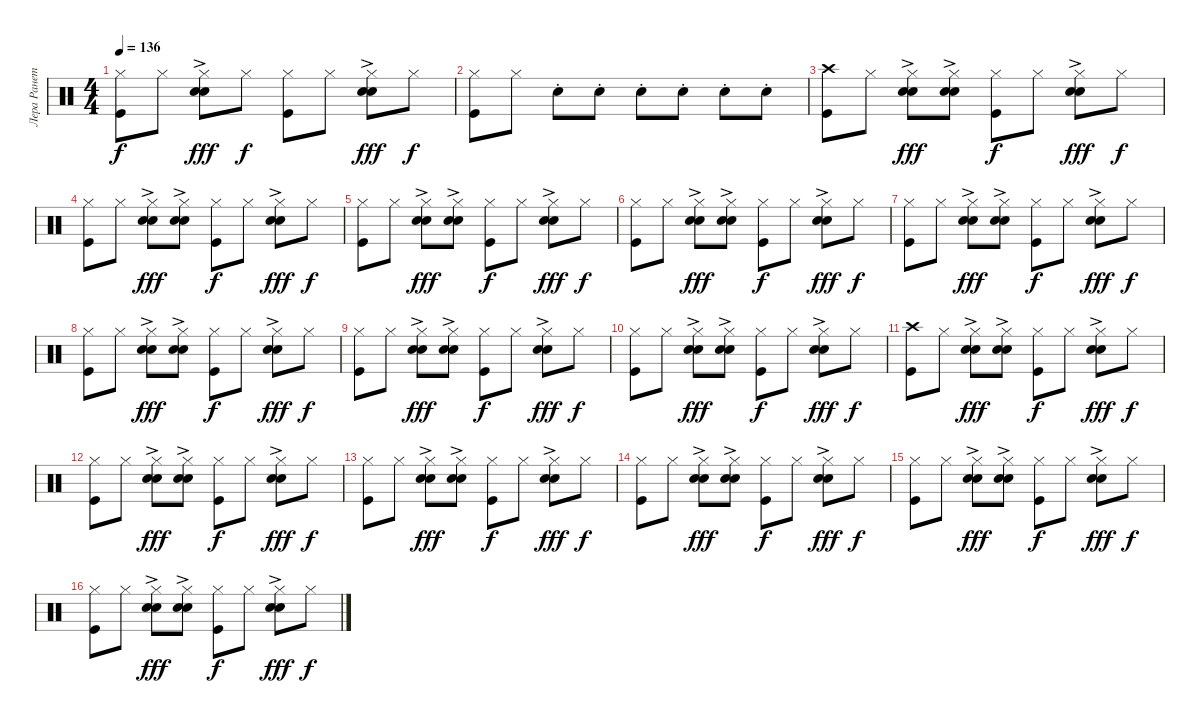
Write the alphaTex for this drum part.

\track ("Лера Ранетка" "Лера Ранет") {instrument percussion}
\staff {score}
\articulation defaults
\ts (4 4)
\tempo 136
\clef neutral
\ks c
("Hi-Hat (closed)" "Kick (hit)").8{dy f} "Hi-Hat (closed)".8 ("Hi-Hat (closed)" "Electric Snare (hit)" "Hand Clap (hit)"{ac}).8{dy fff} "Hi-Hat (closed)".8{dy f} ("Hi-Hat (closed)" "Kick (hit)").8 "Hi-Hat (closed)".8 ("Hi-Hat (closed)" "Electric Snare (hit)" "Hand Clap (hit)"{ac}).8{dy fff} "Hi-Hat (closed)".8{dy f} |
("Hi-Hat (closed)" "Kick (hit)").8 "Hi-Hat (closed)".8 "Electric Snare (hit)"{st}.8 "Electric Snare (hit)"{st}.8 "Electric Snare (hit)"{st}.8 "Electric Snare (hit)"{st}.8 "Electric Snare (hit)"{st}.8 "Electric Snare (hit)"{st}.8 |
("Crash high (hit)" "Kick (hit)").8 "Hi-Hat (closed)".8 ("Hi-Hat (closed)" "Electric Snare (hit)" "Hand Clap (hit)"{ac}).8{dy fff} ("Hi-Hat (closed)" "Electric Snare (hit)" "Hand Clap (hit)"{ac}).8 ("Hi-Hat (closed)" "Kick (hit)").8{dy f} "Hi-Hat (closed)".8 ("Hi-Hat (closed)" "Electric Snare (hit)" "Hand Clap (hit)"{ac}).8{dy fff} "Hi-Hat (closed)".8{dy f} |
("Hi-Hat (closed)" "Kick (hit)").8 "Hi-Hat (closed)".8 ("Hi-Hat (closed)" "Electric Snare (hit)" "Hand Clap (hit)"{ac}).8{dy fff} ("Hi-Hat (closed)" "Electric Snare (hit)" "Hand Clap (hit)"{ac}).8 ("Hi-Hat (closed)" "Kick (hit)").8{dy f} "Hi-Hat (closed)".8 ("Hi-Hat (closed)" "Electric Snare (hit)" "Hand Clap (hit)"{ac}).8{dy fff} "Hi-Hat (closed)".8{dy f} |
("Hi-Hat (closed)" "Kick (hit)").8 "Hi-Hat (closed)".8 ("Hi-Hat (closed)" "Electric Snare (hit)" "Hand Clap (hit)"{ac}).8{dy fff} ("Hi-Hat (closed)" "Electric Snare (hit)" "Hand Clap (hit)"{ac}).8 ("Hi-Hat (closed)" "Kick (hit)").8{dy f} "Hi-Hat (closed)".8 ("Hi-Hat (closed)" "Electric Snare (hit)" "Hand Clap (hit)"{ac}).8{dy fff} "Hi-Hat (closed)".8{dy f} |
("Hi-Hat (closed)" "Kick (hit)").8 "Hi-Hat (closed)".8 ("Hi-Hat (closed)" "Electric Snare (hit)" "Hand Clap (hit)"{ac}).8{dy fff} ("Hi-Hat (closed)" "Electric Snare (hit)" "Hand Clap (hit)"{ac}).8 ("Hi-Hat (closed)" "Kick (hit)").8{dy f} "Hi-Hat (closed)".8 ("Hi-Hat (closed)" "Electric Snare (hit)" "Hand Clap (hit)"{ac}).8{dy fff} "Hi-Hat (closed)".8{dy f} |
("Hi-Hat (closed)" "Kick (hit)").8 "Hi-Hat (closed)".8 ("Hi-Hat (closed)" "Electric Snare (hit)" "Hand Clap (hit)"{ac}).8{dy fff} ("Hi-Hat (closed)" "Electric Snare (hit)" "Hand Clap (hit)"{ac}).8 ("Hi-Hat (closed)" "Kick (hit)").8{dy f} "Hi-Hat (closed)".8 ("Hi-Hat (closed)" "Electric Snare (hit)" "Hand Clap (hit)"{ac}).8{dy fff} "Hi-Hat (closed)".8{dy f} |
("Hi-Hat (closed)" "Kick (hit)").8 "Hi-Hat (closed)".8 ("Hi-Hat (closed)" "Electric Snare (hit)" "Hand Clap (hit)"{ac}).8{dy fff} ("Hi-Hat (closed)" "Electric Snare (hit)" "Hand Clap (hit)"{ac}).8 ("Hi-Hat (closed)" "Kick (hit)").8{dy f} "Hi-Hat (closed)".8 ("Hi-Hat (closed)" "Electric Snare (hit)" "Hand Clap (hit)"{ac}).8{dy fff} "Hi-Hat (closed)".8{dy f} |
("Hi-Hat (closed)" "Kick (hit)").8 "Hi-Hat (closed)".8 ("Hi-Hat (closed)" "Electric Snare (hit)" "Hand Clap (hit)"{ac}).8{dy fff} ("Hi-Hat (closed)" "Electric Snare (hit)" "Hand Clap (hit)"{ac}).8 ("Hi-Hat (closed)" "Kick (hit)").8{dy f} "Hi-Hat (closed)".8 ("Hi-Hat (closed)" "Electric Snare (hit)" "Hand Clap (hit)"{ac}).8{dy fff} "Hi-Hat (closed)".8{dy f} |
("Hi-Hat (closed)" "Kick (hit)").8 "Hi-Hat (closed)".8 ("Hi-Hat (closed)" "Electric Snare (hit)" "Hand Clap (hit)"{ac}).8{dy fff} ("Hi-Hat (closed)" "Electric Snare (hit)" "Hand Clap (hit)"{ac}).8 ("Hi-Hat (closed)" "Kick (hit)").8{dy f} "Hi-Hat (closed)".8 ("Hi-Hat (closed)" "Electric Snare (hit)" "Hand Clap (hit)"{ac}).8{dy fff} "Hi-Hat (closed)".8{dy f} |
("Crash high (hit)" "Kick (hit)").8 "Hi-Hat (closed)".8 ("Hi-Hat (closed)" "Electric Snare (hit)" "Hand Clap (hit)"{ac}).8{dy fff} ("Hi-Hat (closed)" "Electric Snare (hit)" "Hand Clap (hit)"{ac}).8 ("Hi-Hat (closed)" "Kick (hit)").8{dy f} "Hi-Hat (closed)".8 ("Hi-Hat (closed)" "Electric Snare (hit)" "Hand Clap (hit)"{ac}).8{dy fff} "Hi-Hat (closed)".8{dy f} |
("Hi-Hat (closed)" "Kick (hit)").8 "Hi-Hat (closed)".8 ("Hi-Hat (closed)" "Electric Snare (hit)" "Hand Clap (hit)"{ac}).8{dy fff} ("Hi-Hat (closed)" "Electric Snare (hit)" "Hand Clap (hit)"{ac}).8 ("Hi-Hat (closed)" "Kick (hit)").8{dy f} "Hi-Hat (closed)".8 ("Hi-Hat (closed)" "Electric Snare (hit)" "Hand Clap (hit)"{ac}).8{dy fff} "Hi-Hat (closed)".8{dy f} |
("Hi-Hat (closed)" "Kick (hit)").8 "Hi-Hat (closed)".8 ("Hi-Hat (closed)" "Electric Snare (hit)" "Hand Clap (hit)"{ac}).8{dy fff} ("Hi-Hat (closed)" "Electric Snare (hit)" "Hand Clap (hit)"{ac}).8 ("Hi-Hat (closed)" "Kick (hit)").8{dy f} "Hi-Hat (closed)".8 ("Hi-Hat (closed)" "Electric Snare (hit)" "Hand Clap (hit)"{ac}).8{dy fff} "Hi-Hat (closed)".8{dy f} |
("Hi-Hat (closed)" "Kick (hit)").8 "Hi-Hat (closed)".8 ("Hi-Hat (closed)" "Electric Snare (hit)" "Hand Clap (hit)"{ac}).8{dy fff} ("Hi-Hat (closed)" "Electric Snare (hit)" "Hand Clap (hit)"{ac}).8 ("Hi-Hat (closed)" "Kick (hit)").8{dy f} "Hi-Hat (closed)".8 ("Hi-Hat (closed)" "Electric Snare (hit)" "Hand Clap (hit)"{ac}).8{dy fff} "Hi-Hat (closed)".8{dy f} |
("Hi-Hat (closed)" "Kick (hit)").8 "Hi-Hat (closed)".8 ("Hi-Hat (closed)" "Electric Snare (hit)" "Hand Clap (hit)"{ac}).8{dy fff} ("Hi-Hat (closed)" "Electric Snare (hit)" "Hand Clap (hit)"{ac}).8 ("Hi-Hat (closed)" "Kick (hit)").8{dy f} "Hi-Hat (closed)".8 ("Hi-Hat (closed)" "Electric Snare (hit)" "Hand Clap (hit)"{ac}).8{dy fff} "Hi-Hat (closed)".8{dy f} |
("Hi-Hat (closed)" "Kick (hit)").8 "Hi-Hat (closed)".8 ("Hi-Hat (closed)" "Electric Snare (hit)" "Hand Clap (hit)"{ac}).8{dy fff} ("Hi-Hat (closed)" "Electric Snare (hit)" "Hand Clap (hit)"{ac}).8 ("Hi-Hat (closed)" "Kick (hit)").8{dy f} "Hi-Hat (closed)".8 ("Hi-Hat (closed)" "Electric Snare (hit)" "Hand Clap (hit)"{ac}).8{dy fff} "Hi-Hat (closed)".8{dy f}
